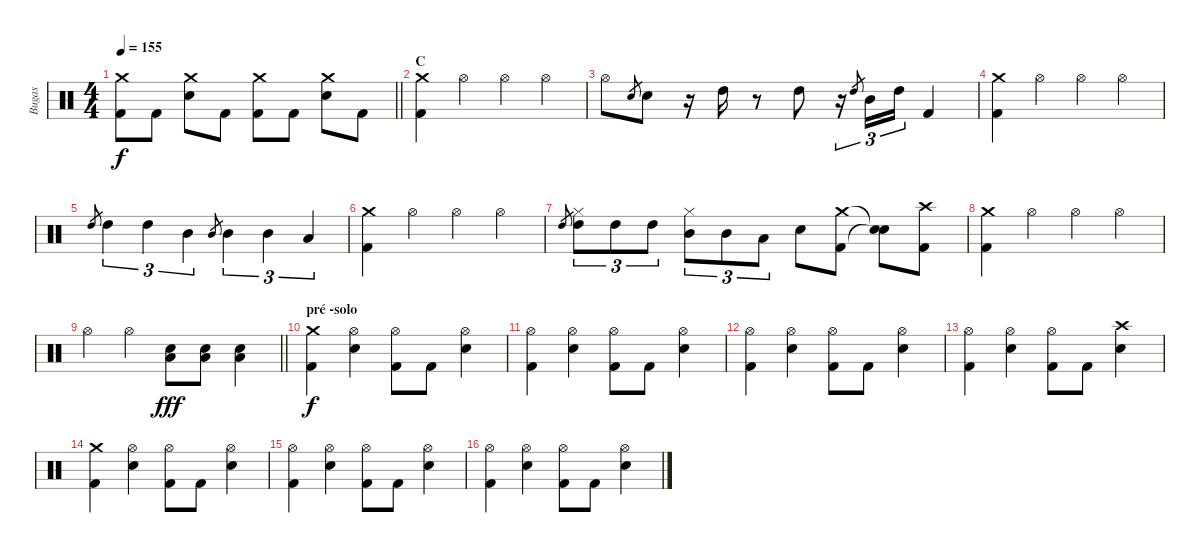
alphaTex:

\track ("Bugas" "Bugas") {instrument percussion}
\staff {score}
\articulation defaults
\ts (4 4)
\tempo 155
\clef neutral
\barLineRight lightlight
\ks c
("Crash medium (hit)" "Kick (hit) 2").8{dy f} "Kick (hit) 2".8 ("Crash medium (hit)" "Electric Snare (hit)").8 "Kick (hit) 2".8 ("Crash medium (hit)" "Kick (hit) 2").8 "Kick (hit) 2".8 ("Crash medium (hit)" "Electric Snare (hit)").8 "Kick (hit) 2".8 |
\section ("" "C")
("Crash medium (hit)" "Kick (hit) 2").4 "Hi-Hat (open)".4 "Hi-Hat (open)".4 "Hi-Hat (open)".4 |
"Hi-Hat (open)".8 "Electric Snare (hit)".8{gr} "Electric Snare (hit)".8 r.16 "High Tom (hit)".16 r.8 "High Tom (hit)".8 r.16{tu (3 2)} "High Tom (hit)".8{gr} "Mid Tom (hit)".16{tu (3 2)} "High Tom (hit)".16{tu (3 2)} "Kick (hit) 2".4 |
("Crash medium (hit)" "Kick (hit) 2").4 "Hi-Hat (open)".4 "Hi-Hat (open)".4 "Hi-Hat (open)".4 |
"High Tom (hit)".8{gr} "High Tom (hit)".4{tu (3 2)} "High Tom (hit)".4{tu (3 2)} "Mid Tom (hit)".4{tu (3 2)} "Mid Tom (hit)".8{gr} "Mid Tom (hit)".4{tu (3 2)} "Mid Tom (hit)".4{tu (3 2)} "Low Tom (hit)".4{tu (3 2)} |
("Crash medium (hit)" "Kick (hit) 2").4 "Hi-Hat (open)".4 "Hi-Hat (open)".4 "Hi-Hat (open)".4 |
"High Tom (hit)".8{gr} ("High Tom (hit)" "Hi-Hat (closed)").8{tu (3 2)} "High Tom (hit)".8{tu (3 2)} "High Tom (hit)".8{tu (3 2)} ("Mid Tom (hit)" "Hi-Hat (closed)").8{tu (3 2)} "Mid Tom (hit)".8{tu (3 2)} "Low Tom (hit)".8{tu (3 2)} "Electric Snare (hit)".8 ("Crash medium (hit)" "Kick (hit) 2").8 ("Snare (hit)"{t} "Snare (hit)"{t}).8 ("Crash high (hit)" "Kick (hit) 2").8 |
("Crash medium (hit)" "Kick (hit) 2").4 "Hi-Hat (open)".4 "Hi-Hat (open)".4 "Hi-Hat (open)".4 |
\barLineRight lightlight "Hi-Hat (open)".4 "Hi-Hat (open)".4
("Electric Snare (hit)" "Low Tom (hit)").8{dy fff} ("Electric Snare (hit)" "Low Tom (hit)").8 ("Electric Snare (hit)" "Low Tom (hit)").4 |
\section ("" "pré -solo")
("Crash medium (hit)" "Kick (hit) 2").4{dy f} ("Hi-Hat (open)" "Electric Snare (hit)").4 ("Hi-Hat (open)" "Kick (hit) 2").8 "Kick (hit) 2".8 ("Hi-Hat (open)" "Electric Snare (hit)").4 |
("Hi-Hat (open)" "Kick (hit) 2").4 ("Hi-Hat (open)" "Electric Snare (hit)").4 ("Hi-Hat (open)" "Kick (hit) 2").8 "Kick (hit) 2".8 ("Hi-Hat (open)" "Electric Snare (hit)").4 |
("Hi-Hat (open)" "Kick (hit) 2").4 ("Hi-Hat (open)" "Electric Snare (hit)").4 ("Hi-Hat (open)" "Kick (hit) 2").8 "Kick (hit) 2".8 ("Hi-Hat (open)" "Electric Snare (hit)").4 |
("Hi-Hat (open)" "Kick (hit) 2").4 ("Hi-Hat (open)" "Electric Snare (hit)").4 ("Hi-Hat (open)" "Kick (hit) 2").8 "Kick (hit) 2".8 ("Crash high (hit)" "Electric Snare (hit)").4 |
("Crash medium (hit)" "Kick (hit) 2").4 ("Hi-Hat (open)" "Electric Snare (hit)").4 ("Hi-Hat (open)" "Kick (hit) 2").8 "Kick (hit) 2".8 ("Hi-Hat (open)" "Electric Snare (hit)").4 |
("Hi-Hat (open)" "Kick (hit) 2").4 ("Hi-Hat (open)" "Electric Snare (hit)").4 ("Hi-Hat (open)" "Kick (hit) 2").8 "Kick (hit) 2".8 ("Hi-Hat (open)" "Electric Snare (hit)").4 |
("Hi-Hat (open)" "Kick (hit) 2").4 ("Hi-Hat (open)" "Electric Snare (hit)").4 ("Hi-Hat (open)" "Kick (hit) 2").8 "Kick (hit) 2".8 ("Hi-Hat (open)" "Electric Snare (hit)").4
